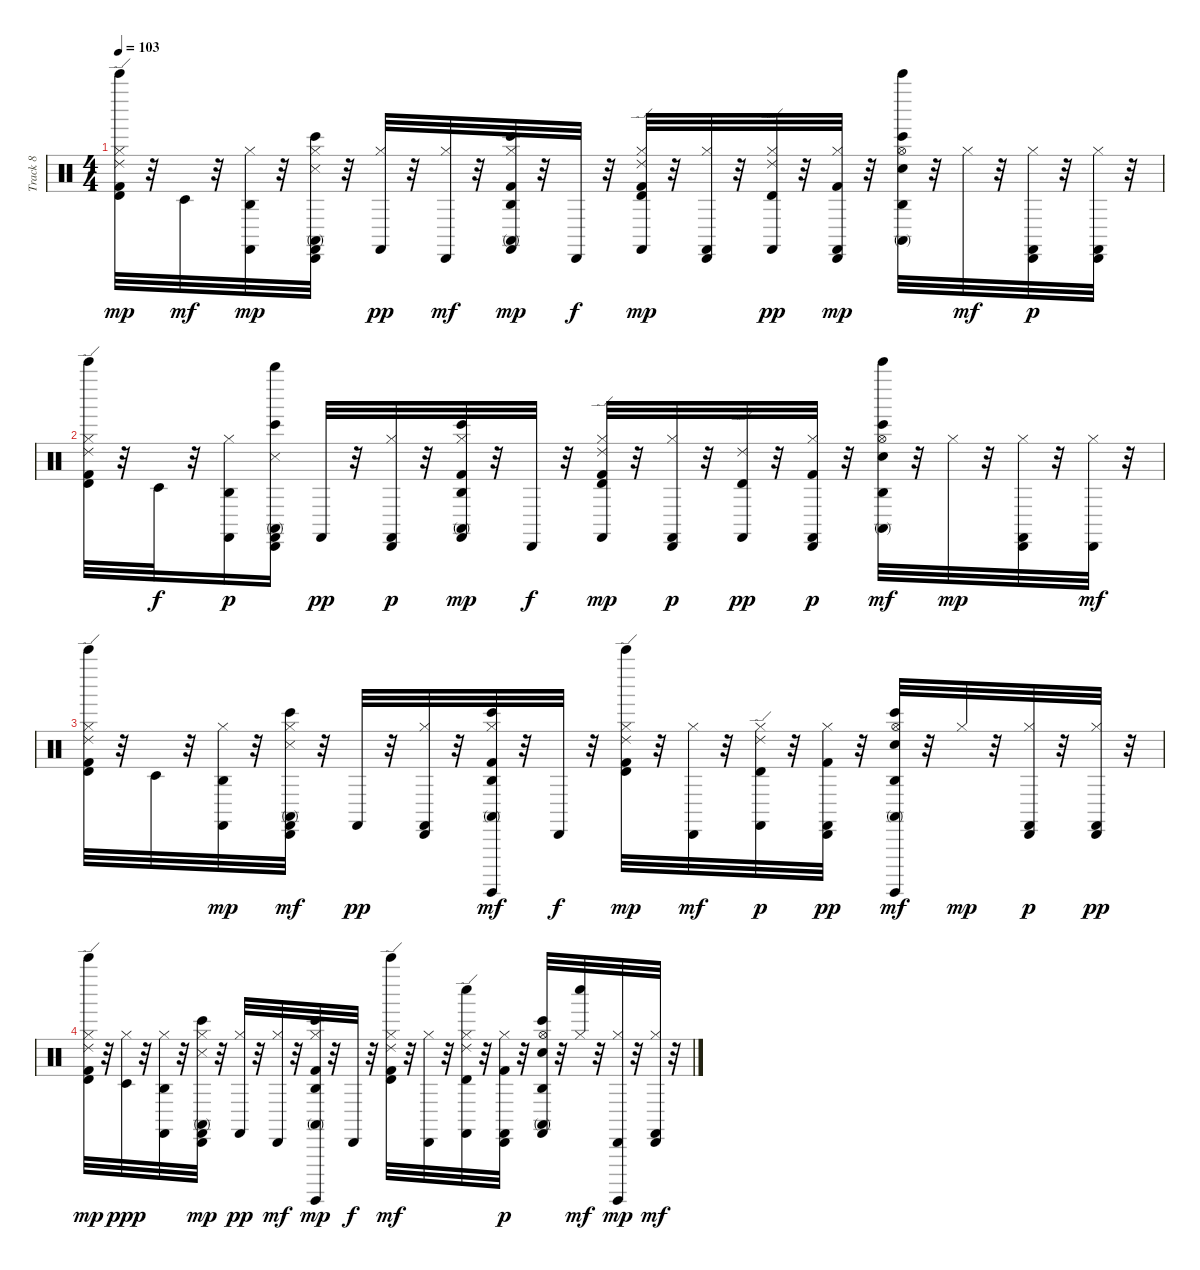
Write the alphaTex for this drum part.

\track ("Track 8" "Track 8") {instrument percussion}
\staff {score}
\articulation defaults
\ts (4 4)
\tempo 103
\clef neutral
\ks c
("Ride (edge) 2" "Timbale high (hit)" "Kick (hit) 2" "Hi-Hat (closed)" "Bell Tree (hit)").32{dy mp} r.32 "Timbale low (hit)".32{dy mf} r.32 ("Agogo high (hit)" "Hi-Hat (closed)" "Castanets (hit)").32{dy mp} r.32 ("Bongo High (hit)" "Conga high (mute)" "Cabasa (hit)" "Snare (side stick) 3" "Hi-Hat (closed)" "Castanets (hit)").32 r.32 ("Hi-Hat (closed)" "Castanets (hit)").32{dy pp} r.32 ("Cabasa (hit)" "Hi-Hat (closed)").32{dy mf} r.32 ("Bongo High (hit)" "Conga high (mute)" "Agogo high (hit)" "Kick (hit) 2" "Hi-Hat (closed)" "Castanets (hit)").32{dy mp} r.32 "Cabasa (hit)".32{dy f} r.32 ("Ride (edge) 2" "Timbale high (hit)" "Kick (hit) 2" "Hi-Hat (closed)" "Castanets (hit)").32{dy mp} r.32 ("Cabasa (hit)" "Hi-Hat (closed)" "Castanets (hit)").32 r.32 ("Ride (edge) 2" "Timbale high (hit)" "Hi-Hat (closed)" "Castanets (hit)").32{dy pp} r.32 ("Cabasa (hit)" "Kick (hit) 2" "Hi-Hat (closed)" "Castanets (hit)").32{dy mp} r.32 ("Bongo High (hit)" "Conga high (mute)" "Agogo high (hit)" "Electric Snare (hit)" "Hi-Hat (open)" "Bell Tree (hit)").32 r.32 "Hi-Hat (closed)".32{dy mf} r.32 ("Cabasa (hit)" "Hi-Hat (closed)" "Castanets (hit)").32{dy p} r.32 ("Cabasa (hit)" "Hi-Hat (closed)" "Castanets (hit)").32 r.32 |
("Ride (edge) 2" "Timbale high (hit)" "Kick (hit) 2" "Hi-Hat (closed)" "Bell Tree (hit)").32 r.32 "Timbale low (hit)".32{dy f} r.32 ("Agogo high (hit)" "Hi-Hat (closed)" "Castanets (hit)").16{dy p} ("Bongo High (hit)" "Conga high (mute)" "Whistle high (hit)" "Cabasa (hit)" "Snare (side stick) 3" "Castanets (hit)").16 "Castanets (hit)".32{dy pp} r.32 ("Cabasa (hit)" "Hi-Hat (closed)" "Castanets (hit)").32{dy p} r.32 ("Bongo High (hit)" "Conga high (mute)" "Agogo high (hit)" "Kick (hit) 2" "Hi-Hat (closed)" "Castanets (hit)").32{dy mp} r.32 "Cabasa (hit)".32{dy f} r.32 ("Ride (edge) 2" "Timbale high (hit)" "Kick (hit) 2" "Hi-Hat (closed)" "Castanets (hit)").32{dy mp} r.32 ("Cabasa (hit)" "Hi-Hat (closed)" "Castanets (hit)").32{dy p} r.32 ("Ride (edge) 2" "Timbale high (hit)" "Castanets (hit)").32{dy pp} r.32 ("Cabasa (hit)" "Kick (hit) 2" "Hi-Hat (closed)" "Castanets (hit)").32{dy p} r.32 ("Bongo High (hit)" "Conga high (mute)" "Agogo high (hit)" "Electric Snare (hit)" "Hi-Hat (open)" "Bell Tree (hit)").32{dy mf} r.32 "Hi-Hat (closed)".32{dy mp} r.32 ("Cabasa (hit)" "Hi-Hat (closed)" "Castanets (hit)").32 r.32 ("Cabasa (hit)" "Hi-Hat (closed)").32{dy mf} r.32 |
("Ride (edge) 2" "Timbale high (hit)" "Kick (hit) 2" "Hi-Hat (closed)" "Bell Tree (hit)").32 r.32 "Timbale low (hit)".32 r.32 ("Agogo high (hit)" "Hi-Hat (closed)" "Castanets (hit)").32{dy mp} r.32 ("Bongo High (hit)" "Conga high (mute)" "Cabasa (hit)" "Snare (side stick) 3" "Castanets (hit)" "Hi-Hat (closed)").32{dy mf} r.32 "Castanets (hit)".32{dy pp} r.32 ("Cabasa (hit)" "Hi-Hat (closed)" "Castanets (hit)").32 r.32 ("Bongo High (hit)" "Conga high (mute)" "Agogo high (hit)" "Kick (hit) 2" "Hi-Hat (closed)" "Surdo (hit)").32{dy mf} r.32 "Cabasa (hit)".32{dy f} r.32 ("Ride (edge) 2" "Timbale high (hit)" "Kick (hit) 2" "Hi-Hat (closed)" "Bell Tree (hit)").32{dy mp} r.32 ("Cabasa (hit)" "Hi-Hat (closed)").32{dy mf} r.32 ("Ride (edge) 2" "Timbale high (hit)" "Hi-Hat (closed)" "Castanets (hit)").32{dy p} r.32 ("Cabasa (hit)" "Kick (hit) 2" "Hi-Hat (closed)" "Castanets (hit)").32{dy pp} r.32 ("Bongo High (hit)" "Conga high (mute)" "Agogo high (hit)" "Electric Snare (hit)" "Hi-Hat (open)" "Surdo (hit)").32{dy mf} r.32 "Hi-Hat (closed)".32{dy mp} r.32 ("Cabasa (hit)" "Hi-Hat (closed)" "Castanets (hit)").32{dy p} r.32 ("Cabasa (hit)" "Hi-Hat (closed)" "Castanets (hit)").32{dy pp} r.32 |
("Ride (edge) 2" "Timbale high (hit)" "Kick (hit) 2" "Hi-Hat (closed)" "Bell Tree (hit)").32{dy mp} r.32 ("Timbale low (hit)" "Hi-Hat (closed)").32{dy ppp} r.32 ("Agogo high (hit)" "Hi-Hat (closed)" "Castanets (hit)").32 r.32 ("Bongo High (hit)" "Conga high (mute)" "Cabasa (hit)" "Hi-Hat (closed)" "Snare (side stick) 3" "Castanets (hit)").32{dy mp} r.32 ("Hi-Hat (closed)" "Castanets (hit)").32{dy pp} r.32 ("Cabasa (hit)" "Hi-Hat (closed)").32{dy mf} r.32 ("Bongo High (hit)" "Conga high (mute)" "Agogo high (hit)" "Kick (hit) 2" "Hi-Hat (closed)" "Surdo (hit)").32{dy mp} r.32 "Cabasa (hit)".32{dy f} r.32 ("Ride (edge) 2" "Timbale high (hit)" "Kick (hit) 2" "Hi-Hat (closed)" "Bell Tree (hit)").32{dy mf} r.32 ("Cabasa (hit)" "Hi-Hat (closed)").32 r.32 ("Ride (edge) 2" "Timbale high (hit)" "Hi-Hat (closed)" "Castanets (hit)" "Whistle low (hit)").32 r.32 ("Cabasa (hit)" "Kick (hit) 2" "Hi-Hat (closed)" "Castanets (hit)").32{dy p} r.32 ("Bongo High (hit)" "Conga high (mute)" "Agogo high (hit)" "Hi-Hat (open)" "Electric Snare (hit)" "Castanets (hit)").32 r.32 ("Hi-Hat (closed)" "Whistle low (hit)").32{dy mf} r.32 ("Cabasa (hit)" "Hi-Hat (closed)" "Surdo (hit)").32{dy mp} r.32 ("Cabasa (hit)" "Hi-Hat (closed)" "Castanets (hit)").32{dy mf} r.32
